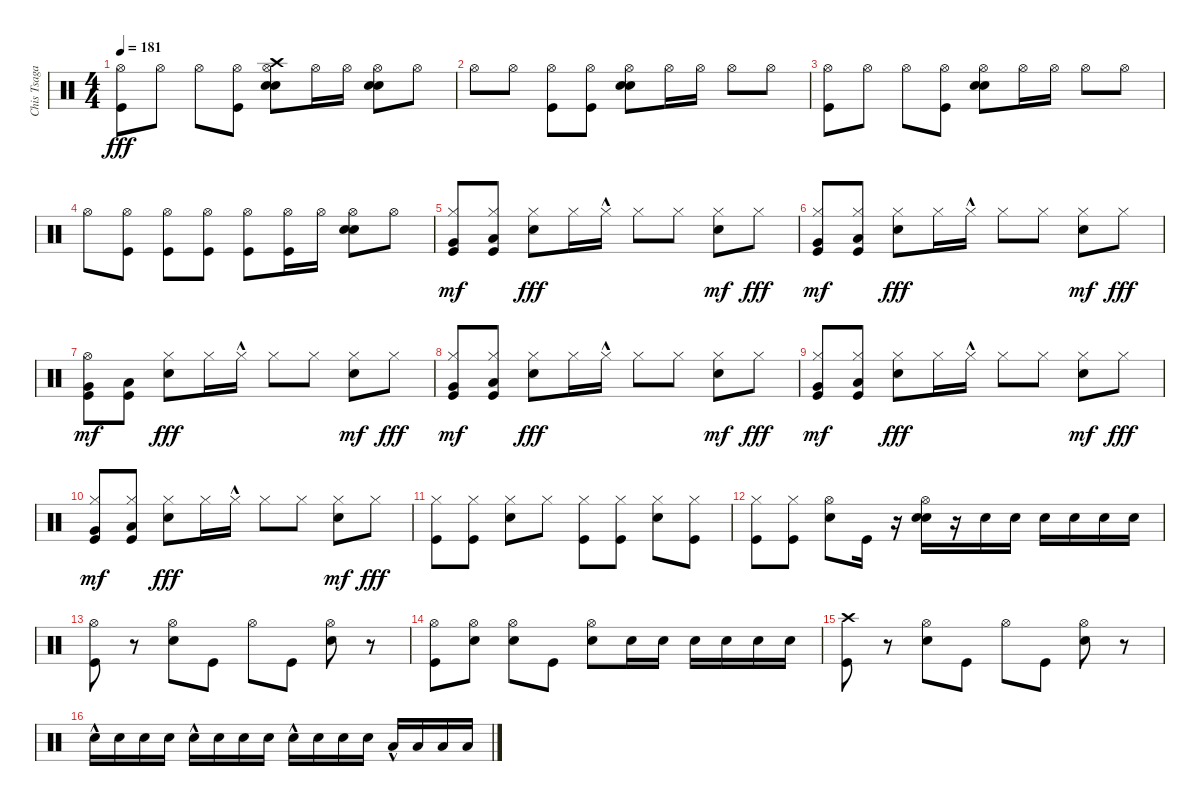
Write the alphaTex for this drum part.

\track ("Chis Tsagakis" "Chis Tsaga") {instrument percussion}
\staff {score}
\articulation defaults
\ts (4 4)
\tempo 181
\clef neutral
\ks c
("Hi-Hat (open)" "Kick (hit)").8{dy fff} "Hi-Hat (open)".8 "Hi-Hat (open)".8 ("Hi-Hat (open)" "Kick (hit)").8 ("Hi-Hat (open)" "Crash high (hit)" "Electric Snare (hit)" "Electric Snare (hit)").8 "Hi-Hat (open)".16 "Hi-Hat (open)".16 ("Hi-Hat (open)" "Electric Snare (hit)" "Electric Snare (hit)").8 "Hi-Hat (open)".8 |
"Hi-Hat (open)".8 "Hi-Hat (open)".8 ("Hi-Hat (open)" "Kick (hit)").8 ("Hi-Hat (open)" "Kick (hit)").8 ("Hi-Hat (open)" "Electric Snare (hit)" "Electric Snare (hit)").8 "Hi-Hat (open)".16 "Hi-Hat (open)".16 "Hi-Hat (open)".8 "Hi-Hat (open)".8 |
("Hi-Hat (open)" "Kick (hit)").8 "Hi-Hat (open)".8 "Hi-Hat (open)".8 ("Hi-Hat (open)" "Kick (hit)").8 ("Hi-Hat (open)" "Electric Snare (hit)" "Electric Snare (hit)").8 "Hi-Hat (open)".16 "Hi-Hat (open)".16 "Hi-Hat (open)".8 "Hi-Hat (open)".8 |
"Hi-Hat (open)".8 ("Hi-Hat (open)" "Kick (hit)").8 ("Hi-Hat (open)" "Kick (hit)").8 ("Hi-Hat (open)" "Kick (hit)").8 ("Hi-Hat (open)" "Kick (hit)").8 ("Hi-Hat (open)" "Kick (hit)").16 "Hi-Hat (open)".16 ("Hi-Hat (open)" "Electric Snare (hit)" "Electric Snare (hit)").8 "Hi-Hat (open)".8 |
("Hi-Hat (closed)" "Very Low Tom (hit)" "Kick (hit)").8{dy mf} ("Hi-Hat (closed)" "Low Floor Tom (hit)" "Kick (hit)").8 ("Hi-Hat (closed)" "Electric Snare (hit)").8{dy fff} "Hi-Hat (closed)".16 "Hi-Hat (closed)"{hac}.16 "Hi-Hat (closed)".8 "Hi-Hat (closed)".8 ("Hi-Hat (closed)" "Electric Snare (hit)").8{dy mf} "Hi-Hat (closed)".8{dy fff} |
("Hi-Hat (closed)" "Very Low Tom (hit)" "Kick (hit)").8{dy mf} ("Hi-Hat (closed)" "Low Floor Tom (hit)" "Kick (hit)").8 ("Hi-Hat (closed)" "Electric Snare (hit)").8{dy fff} "Hi-Hat (closed)".16 "Hi-Hat (closed)"{hac}.16 "Hi-Hat (closed)".8 "Hi-Hat (closed)".8 ("Hi-Hat (closed)" "Electric Snare (hit)").8{dy mf} "Hi-Hat (closed)".8{dy fff} |
("Hi-Hat (open)" "Very Low Tom (hit)" "Kick (hit)").8{dy mf} ("Low Floor Tom (hit)" "Kick (hit)").8 ("Hi-Hat (closed)" "Electric Snare (hit)").8{dy fff} "Hi-Hat (closed)".16 "Hi-Hat (closed)"{hac}.16 "Hi-Hat (closed)".8 "Hi-Hat (closed)".8 ("Hi-Hat (closed)" "Electric Snare (hit)").8{dy mf} "Hi-Hat (closed)".8{dy fff} |
("Hi-Hat (closed)" "Very Low Tom (hit)" "Kick (hit)").8{dy mf} ("Hi-Hat (closed)" "Low Floor Tom (hit)" "Kick (hit)").8 ("Hi-Hat (closed)" "Electric Snare (hit)").8{dy fff} "Hi-Hat (closed)".16 "Hi-Hat (closed)"{hac}.16 "Hi-Hat (closed)".8 "Hi-Hat (closed)".8 ("Hi-Hat (closed)" "Electric Snare (hit)").8{dy mf} "Hi-Hat (closed)".8{dy fff} |
("Hi-Hat (closed)" "Very Low Tom (hit)" "Kick (hit)").8{dy mf} ("Hi-Hat (closed)" "Low Floor Tom (hit)" "Kick (hit)").8 ("Hi-Hat (closed)" "Electric Snare (hit)").8{dy fff} "Hi-Hat (closed)".16 "Hi-Hat (closed)"{hac}.16 "Hi-Hat (closed)".8 "Hi-Hat (closed)".8 ("Hi-Hat (closed)" "Electric Snare (hit)").8{dy mf} "Hi-Hat (closed)".8{dy fff} |
("Hi-Hat (closed)" "Very Low Tom (hit)" "Kick (hit)").8{dy mf} ("Hi-Hat (closed)" "Low Floor Tom (hit)" "Kick (hit)").8 ("Hi-Hat (closed)" "Electric Snare (hit)").8{dy fff} "Hi-Hat (closed)".16 "Hi-Hat (closed)"{hac}.16 "Hi-Hat (closed)".8 "Hi-Hat (closed)".8 ("Hi-Hat (closed)" "Electric Snare (hit)").8{dy mf} "Hi-Hat (closed)".8{dy fff} |
("Hi-Hat (closed)" "Kick (hit)").8 ("Hi-Hat (closed)" "Kick (hit)").8 ("Hi-Hat (closed)" "Electric Snare (hit)").8 "Hi-Hat (closed)".8 ("Hi-Hat (closed)" "Kick (hit)").8 ("Hi-Hat (closed)" "Kick (hit)").8 ("Hi-Hat (closed)" "Electric Snare (hit)").8 ("Hi-Hat (closed)" "Kick (hit)").8 |
("Hi-Hat (closed)" "Kick (hit)").8 ("Hi-Hat (closed)" "Kick (hit)").8 ("Hi-Hat (open)" "Electric Snare (hit)").8 "Kick (hit)".16 r.16 ("Hi-Hat (open)" "Electric Snare (hit)" "Electric Snare (hit)").16 r.16 "Electric Snare (hit)".16 "Electric Snare (hit)".16 "Electric Snare (hit)".16 "Electric Snare (hit)".16 "Electric Snare (hit)".16 "Electric Snare (hit)".16 |
("Hi-Hat (open)" "Kick (hit)").8 r.8 ("Hi-Hat (open)" "Electric Snare (hit)").8 "Kick (hit)".8 "Hi-Hat (open)".8 "Kick (hit)".8 ("Hi-Hat (open)" "Electric Snare (hit)").8 r.8 |
("Hi-Hat (open)" "Kick (hit)").8 ("Hi-Hat (open)" "Electric Snare (hit)").8 ("Hi-Hat (open)" "Electric Snare (hit)").8 "Kick (hit)".8 ("Hi-Hat (open)" "Electric Snare (hit)").8 "Electric Snare (hit)".16 "Electric Snare (hit)".16 "Electric Snare (hit)".16 "Electric Snare (hit)".16 "Electric Snare (hit)".16 "Electric Snare (hit)".16 |
("Crash high (hit)" "Kick (hit)").8 r.8 ("Hi-Hat (open)" "Electric Snare (hit)").8 "Kick (hit)".8 "Hi-Hat (open)".8 "Kick (hit)".8 ("Hi-Hat (open)" "Electric Snare (hit)").8 r.8 |
"Electric Snare (hit)"{hac}.16 "Electric Snare (hit)".16 "Electric Snare (hit)".16 "Electric Snare (hit)".16 "Electric Snare (hit)"{hac}.16 "Electric Snare (hit)".16 "Electric Snare (hit)".16 "Electric Snare (hit)".16 "Electric Snare (hit)"{hac}.16 "Electric Snare (hit)".16 "Electric Snare (hit)".16 "Electric Snare (hit)".16 "Low Floor Tom (hit)"{hac}.16 "Low Floor Tom (hit)".16 "Low Floor Tom (hit)".16 "Low Floor Tom (hit)".16
